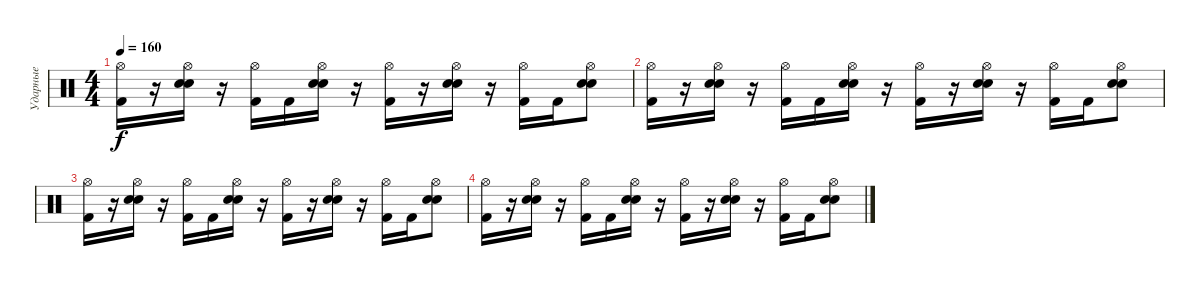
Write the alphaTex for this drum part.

\track ("Ударные" "Ударные") {instrument percussion}
\staff {score}
\articulation defaults
\ts (4 4)
\tempo 160
\clef neutral
\ks c
("Hi-Hat (open)" "Kick (hit) 2").16{dy f} r.16 ("Hi-Hat (open)" "Electric Snare (hit)" "Snare (hit) 2").16 r.16 ("Hi-Hat (open)" "Kick (hit) 2").16 "Kick (hit) 2".16 ("Hi-Hat (open)" "Electric Snare (hit)" "Snare (hit) 2").16 r.16 ("Hi-Hat (open)" "Kick (hit) 2").16 r.16 ("Hi-Hat (open)" "Electric Snare (hit)" "Snare (hit) 2").16 r.16 ("Hi-Hat (open)" "Kick (hit) 2").16 "Kick (hit) 2".16 ("Hi-Hat (open)" "Electric Snare (hit)" "Snare (hit) 2").8 |
("Hi-Hat (open)" "Kick (hit) 2").16 r.16 ("Hi-Hat (open)" "Electric Snare (hit)" "Snare (hit) 2").16 r.16 ("Hi-Hat (open)" "Kick (hit) 2").16 "Kick (hit) 2".16 ("Hi-Hat (open)" "Electric Snare (hit)" "Snare (hit) 2").16 r.16 ("Hi-Hat (open)" "Kick (hit) 2").16 r.16 ("Hi-Hat (open)" "Electric Snare (hit)" "Snare (hit) 2").16 r.16 ("Hi-Hat (open)" "Kick (hit) 2").16 "Kick (hit) 2".16 ("Hi-Hat (open)" "Electric Snare (hit)" "Snare (hit) 2").8 |
("Hi-Hat (open)" "Kick (hit) 2").16 r.16 ("Hi-Hat (open)" "Electric Snare (hit)" "Snare (hit) 2").16 r.16 ("Hi-Hat (open)" "Kick (hit) 2").16 "Kick (hit) 2".16 ("Hi-Hat (open)" "Electric Snare (hit)" "Snare (hit) 2").16 r.16 ("Hi-Hat (open)" "Kick (hit) 2").16 r.16 ("Hi-Hat (open)" "Electric Snare (hit)" "Snare (hit) 2").16 r.16 ("Hi-Hat (open)" "Kick (hit) 2").16 "Kick (hit) 2".16 ("Hi-Hat (open)" "Electric Snare (hit)" "Snare (hit) 2").8 |
("Hi-Hat (open)" "Kick (hit) 2").16 r.16 ("Hi-Hat (open)" "Electric Snare (hit)" "Snare (hit) 2").16 r.16 ("Hi-Hat (open)" "Kick (hit) 2").16 "Kick (hit) 2".16 ("Hi-Hat (open)" "Electric Snare (hit)" "Snare (hit) 2").16 r.16 ("Hi-Hat (open)" "Kick (hit) 2").16 r.16 ("Hi-Hat (open)" "Electric Snare (hit)" "Snare (hit) 2").16 r.16 ("Hi-Hat (open)" "Kick (hit) 2").16 "Kick (hit) 2".16 ("Hi-Hat (open)" "Electric Snare (hit)" "Snare (hit) 2").8
